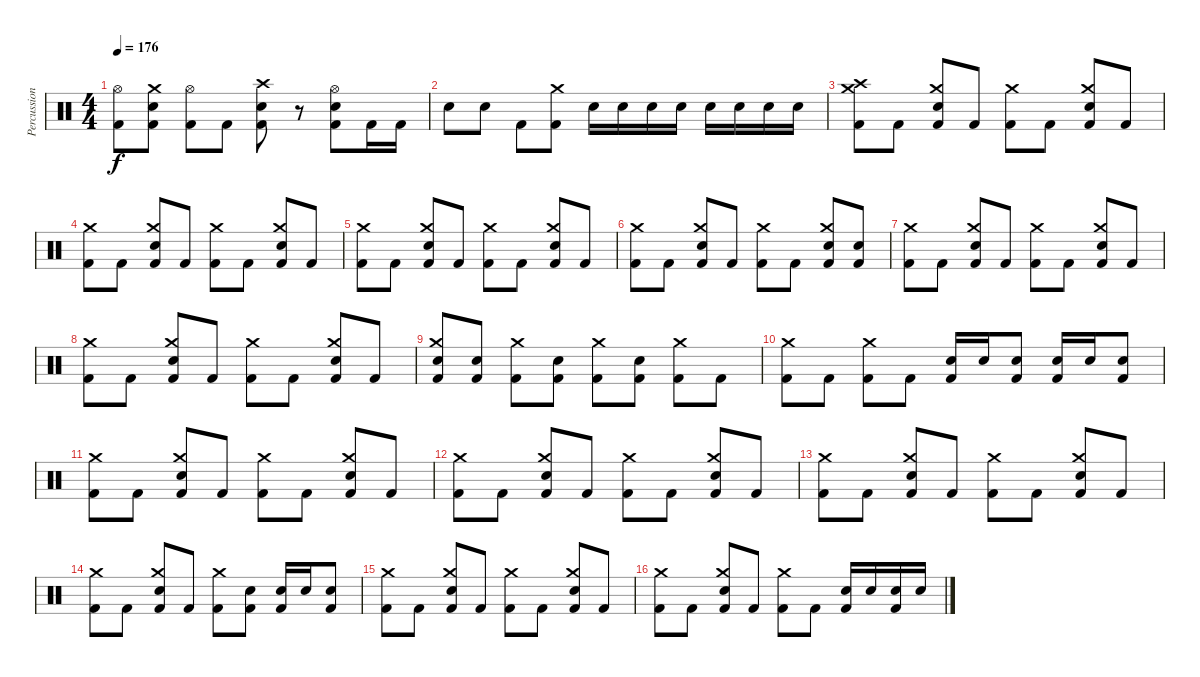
\track ("Percussion" "Percussion") {instrument percussion}
\staff {score}
\articulation defaults
\ts (4 4)
\tempo 176
\clef neutral
\ks c
("Hi-Hat (open)" "Kick (hit) 2").8{dy f} ("Crash medium (hit)" "Electric Snare (hit)" "Kick (hit) 2").8 ("Hi-Hat (open)" "Kick (hit) 2").8 "Kick (hit) 2".8 ("Crash high (hit)" "Electric Snare (hit)" "Kick (hit) 2").8 r.8 ("Hi-Hat (open)" "Electric Snare (hit)" "Kick (hit) 2").8 "Kick (hit) 2".16 "Kick (hit) 2".16 |
"Electric Snare (hit)".8 "Electric Snare (hit)".8 "Kick (hit) 2".8 ("Crash medium (hit)" "Kick (hit) 2").8 "Electric Snare (hit)".16 "Electric Snare (hit)".16 "Electric Snare (hit)".16 "Electric Snare (hit)".16 "Electric Snare (hit)".16 "Electric Snare (hit)".16 "Electric Snare (hit)".16 "Electric Snare (hit)".16 |
("Crash medium (hit)" "Crash high (hit)" "Kick (hit) 2").8 "Kick (hit) 2".8 ("Crash medium (hit)" "Electric Snare (hit)" "Kick (hit) 2").8 "Kick (hit) 2".8 ("Crash medium (hit)" "Kick (hit) 2").8 "Kick (hit) 2".8 ("Crash medium (hit)" "Electric Snare (hit)" "Kick (hit) 2").8 "Kick (hit) 2".8 |
("Crash medium (hit)" "Kick (hit) 2").8 "Kick (hit) 2".8 ("Crash medium (hit)" "Electric Snare (hit)" "Kick (hit) 2").8 "Kick (hit) 2".8 ("Crash medium (hit)" "Kick (hit) 2").8 "Kick (hit) 2".8 ("Crash medium (hit)" "Electric Snare (hit)" "Kick (hit) 2").8 "Kick (hit) 2".8 |
("Crash medium (hit)" "Kick (hit) 2").8 "Kick (hit) 2".8 ("Crash medium (hit)" "Electric Snare (hit)" "Kick (hit) 2").8 "Kick (hit) 2".8 ("Crash medium (hit)" "Kick (hit) 2").8 "Kick (hit) 2".8 ("Crash medium (hit)" "Electric Snare (hit)" "Kick (hit) 2").8 "Kick (hit) 2".8 |
("Crash medium (hit)" "Kick (hit) 2").8 "Kick (hit) 2".8 ("Crash medium (hit)" "Electric Snare (hit)" "Kick (hit) 2").8 "Kick (hit) 2".8 ("Crash medium (hit)" "Kick (hit) 2").8 "Kick (hit) 2".8 ("Crash medium (hit)" "Electric Snare (hit)" "Kick (hit) 2").8 ("Electric Snare (hit)" "Kick (hit) 2").8 |
("Crash medium (hit)" "Kick (hit) 2").8 "Kick (hit) 2".8 ("Crash medium (hit)" "Electric Snare (hit)" "Kick (hit) 2").8 "Kick (hit) 2".8 ("Crash medium (hit)" "Kick (hit) 2").8 "Kick (hit) 2".8 ("Crash medium (hit)" "Electric Snare (hit)" "Kick (hit) 2").8 "Kick (hit) 2".8 |
("Crash medium (hit)" "Kick (hit) 2").8 "Kick (hit) 2".8 ("Crash medium (hit)" "Electric Snare (hit)" "Kick (hit) 2").8 "Kick (hit) 2".8 ("Crash medium (hit)" "Kick (hit) 2").8 "Kick (hit) 2".8 ("Crash medium (hit)" "Electric Snare (hit)" "Kick (hit) 2").8 "Kick (hit) 2".8 |
("Crash medium (hit)" "Electric Snare (hit)" "Kick (hit) 2").8 ("Electric Snare (hit)" "Kick (hit) 2").8 ("Crash medium (hit)" "Kick (hit) 2").8 ("Electric Snare (hit)" "Kick (hit) 2").8 ("Crash medium (hit)" "Kick (hit) 2").8 ("Electric Snare (hit)" "Kick (hit) 2").8 ("Crash medium (hit)" "Kick (hit) 2").8 "Kick (hit) 2".8 |
("Crash medium (hit)" "Kick (hit) 2").8 "Kick (hit) 2".8 ("Crash medium (hit)" "Kick (hit) 2").8 "Kick (hit) 2".8 ("Electric Snare (hit)" "Kick (hit) 2").16 "Electric Snare (hit)".16 ("Electric Snare (hit)" "Kick (hit) 2").8 ("Electric Snare (hit)" "Kick (hit) 2").16 "Electric Snare (hit)".16 ("Electric Snare (hit)" "Kick (hit) 2").8 |
("Crash medium (hit)" "Kick (hit) 2").8 "Kick (hit) 2".8 ("Crash medium (hit)" "Electric Snare (hit)" "Kick (hit) 2").8 "Kick (hit) 2".8 ("Crash medium (hit)" "Kick (hit) 2").8 "Kick (hit) 2".8 ("Crash medium (hit)" "Electric Snare (hit)" "Kick (hit) 2").8 "Kick (hit) 2".8 |
("Crash medium (hit)" "Kick (hit) 2").8 "Kick (hit) 2".8 ("Crash medium (hit)" "Electric Snare (hit)" "Kick (hit) 2").8 "Kick (hit) 2".8 ("Crash medium (hit)" "Kick (hit) 2").8 "Kick (hit) 2".8 ("Crash medium (hit)" "Electric Snare (hit)" "Kick (hit) 2").8 "Kick (hit) 2".8 |
("Crash medium (hit)" "Kick (hit) 2").8 "Kick (hit) 2".8 ("Crash medium (hit)" "Electric Snare (hit)" "Kick (hit) 2").8 "Kick (hit) 2".8 ("Crash medium (hit)" "Kick (hit) 2").8 "Kick (hit) 2".8 ("Crash medium (hit)" "Electric Snare (hit)" "Kick (hit) 2").8 "Kick (hit) 2".8 |
("Crash medium (hit)" "Kick (hit) 2").8 "Kick (hit) 2".8 ("Crash medium (hit)" "Electric Snare (hit)" "Kick (hit) 2").8 "Kick (hit) 2".8 ("Crash medium (hit)" "Kick (hit) 2").8 ("Electric Snare (hit)" "Kick (hit) 2").8 ("Electric Snare (hit)" "Kick (hit) 2").16 "Electric Snare (hit)".16 ("Electric Snare (hit)" "Kick (hit) 2").8 |
("Crash medium (hit)" "Kick (hit) 2").8 "Kick (hit) 2".8 ("Crash medium (hit)" "Electric Snare (hit)" "Kick (hit) 2").8 "Kick (hit) 2".8 ("Crash medium (hit)" "Kick (hit) 2").8 "Kick (hit) 2".8 ("Crash medium (hit)" "Electric Snare (hit)" "Kick (hit) 2").8 "Kick (hit) 2".8 |
("Crash medium (hit)" "Kick (hit) 2").8 "Kick (hit) 2".8 ("Crash medium (hit)" "Electric Snare (hit)" "Kick (hit) 2").8 "Kick (hit) 2".8 ("Crash medium (hit)" "Kick (hit) 2").8 "Kick (hit) 2".8 ("Electric Snare (hit)" "Kick (hit) 2").16 "Electric Snare (hit)".16 ("Electric Snare (hit)" "Kick (hit) 2").16 "Electric Snare (hit)".16
